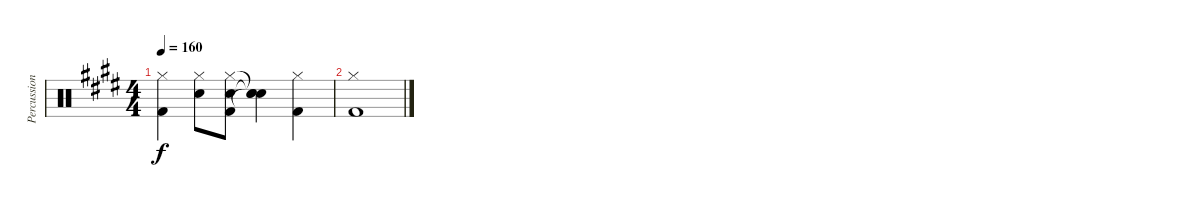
\track ("Percussion" "Percussion") {instrument percussion}
\staff {score}
\articulation defaults
\ts (4 4)
\tempo 160
\clef neutral
\ks e
("Hi-Hat (closed)" "Kick (hit) 2").4{dy f} ("Hi-Hat (closed)" "Snare (hit) 2").8 ("Hi-Hat (closed)" "Snare (hit) 2" "Kick (hit) 2").8 ("Snare (hit)"{t} "Snare (hit)"{t} "Snare (hit)"{t}).4 ("Hi-Hat (closed)" "Kick (hit) 2").4 |
("Hi-Hat (closed)" "Kick (hit) 2").1
